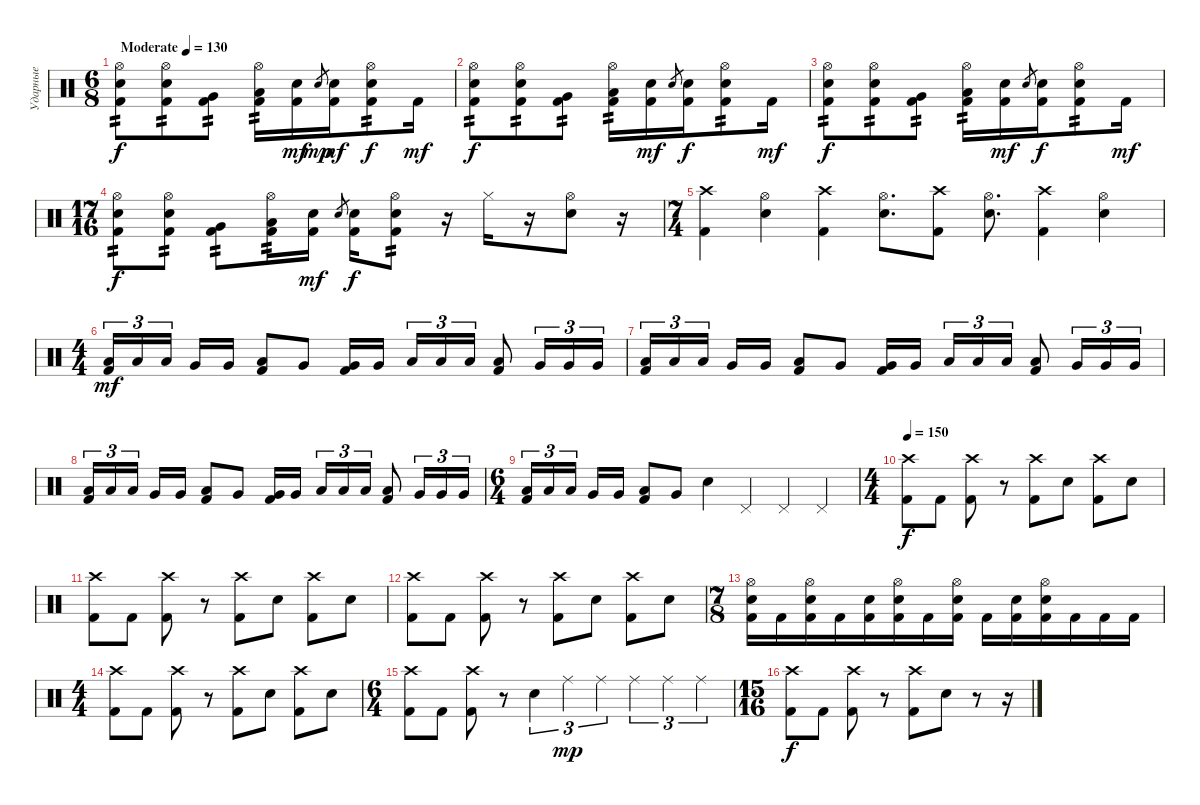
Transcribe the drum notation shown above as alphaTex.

\track ("Ударные" "Ударные") {instrument percussion}
\staff {score}
\articulation defaults
\ts (6 8)
\tempo (130 "Moderate")
\clef neutral
\ks c
("Hi-Hat (open)" "Electric Snare (hit)" "Kick (hit) 2").8{tp 2 dy f} ("Hi-Hat (open)" "Electric Snare (hit)" "Kick (hit) 2").8{tp 2} ("Very Low Tom (hit)" "Kick (hit) 2").8{tp 2} ("Hi-Hat (open)" "Low Floor Tom (hit)" "Kick (hit) 2").16{tp 2} ("Electric Snare (hit)" "Kick (hit) 2").16{dy mf} "Electric Snare (hit)".8{gr dy mp} ("Electric Snare (hit)" "Kick (hit) 2").16{dy mf} ("Hi-Hat (open)" "Electric Snare (hit)" "Kick (hit) 2").8{tp 2 dy f} "Kick (hit) 2".16{dy mf} |
("Hi-Hat (open)" "Electric Snare (hit)" "Kick (hit) 2").8{tp 2 dy f} ("Hi-Hat (open)" "Electric Snare (hit)" "Kick (hit) 2").8{tp 2} ("Very Low Tom (hit)" "Kick (hit) 2").8{tp 2} ("Hi-Hat (open)" "Low Floor Tom (hit)" "Kick (hit) 2").16{tp 2} ("Electric Snare (hit)" "Kick (hit) 2").16{dy mf} "Electric Snare (hit)".8{gr} ("Electric Snare (hit)" "Kick (hit) 2").16{dy f} ("Hi-Hat (open)" "Electric Snare (hit)" "Kick (hit) 2").8{tp 2} "Kick (hit) 2".16{dy mf} |
("Hi-Hat (open)" "Electric Snare (hit)" "Kick (hit) 2").8{tp 2 dy f} ("Hi-Hat (open)" "Electric Snare (hit)" "Kick (hit) 2").8{tp 2} ("Very Low Tom (hit)" "Kick (hit) 2").8{tp 2} ("Hi-Hat (open)" "Low Floor Tom (hit)" "Kick (hit) 2").16{tp 2} ("Electric Snare (hit)" "Kick (hit) 2").16{dy mf} "Electric Snare (hit)".8{gr} ("Electric Snare (hit)" "Kick (hit) 2").16{dy f} ("Hi-Hat (open)" "Electric Snare (hit)" "Kick (hit) 2").8{tp 2} "Kick (hit) 2".16{dy mf} |
\ts (17 16)
("Hi-Hat (open)" "Electric Snare (hit)" "Kick (hit) 2").8{tp 2 dy f} ("Hi-Hat (open)" "Electric Snare (hit)" "Kick (hit) 2").8{tp 2} ("Very Low Tom (hit)" "Kick (hit) 2").8{tp 2} ("Hi-Hat (open)" "Low Floor Tom (hit)" "Kick (hit) 2").16{tp 2} ("Electric Snare (hit)" "Kick (hit) 2").16{dy mf} "Electric Snare (hit)".8{gr} ("Electric Snare (hit)" "Kick (hit) 2").16{dy f} ("Hi-Hat (open)" "Electric Snare (hit)" "Kick (hit) 2").8{tp 2} r.16 "Hi-Hat (closed)".16 r.16 ("Hi-Hat (open)" "Electric Snare (hit)").8 r.16 |
\ts (7 4)
("Crash high (hit)" "Kick (hit) 2").4 ("Hi-Hat (open)" "Electric Snare (hit)").4 ("Crash high (hit)" "Kick (hit) 2").4 ("Hi-Hat (open)" "Electric Snare (hit)").8{d} ("Crash high (hit)" "Kick (hit) 2").8 ("Hi-Hat (open)" "Electric Snare (hit)").8{d} ("Crash high (hit)" "Kick (hit) 2").4 ("Hi-Hat (open)" "Electric Snare (hit)").4 |
\ts (4 4)
("Low Tom (hit)" "Kick (hit) 2").16{tu (3 2) dy mf} "Low Tom (hit)".16{tu (3 2)} "Low Tom (hit)".16{tu (3 2) beam splitsecondary} "Very Low Tom (hit)".16 "Very Low Tom (hit)".16 ("Low Tom (hit)" "Kick (hit) 2").8 "Very Low Tom (hit)".8 ("Very Low Tom (hit)" "Kick (hit) 2").16 "Very Low Tom (hit)".16{beam splitsecondary} "Low Floor Tom (hit)".16{tu (3 2)} "Low Floor Tom (hit)".16{tu (3 2)} "Low Floor Tom (hit)".16{tu (3 2)} ("Low Floor Tom (hit)" "Kick (hit) 2").8 "Very Low Tom (hit)".16{tu (3 2)} "Very Low Tom (hit)".16{tu (3 2)} "Very Low Tom (hit)".16{tu (3 2)} |
("Low Tom (hit)" "Kick (hit) 2").16{tu (3 2)} "Low Tom (hit)".16{tu (3 2)} "Low Tom (hit)".16{tu (3 2) beam splitsecondary} "Very Low Tom (hit)".16 "Very Low Tom (hit)".16 ("Low Tom (hit)" "Kick (hit) 2").8 "Very Low Tom (hit)".8 ("Very Low Tom (hit)" "Kick (hit) 2").16 "Very Low Tom (hit)".16{beam splitsecondary} "Low Floor Tom (hit)".16{tu (3 2)} "Low Floor Tom (hit)".16{tu (3 2)} "Low Floor Tom (hit)".16{tu (3 2)} ("Low Floor Tom (hit)" "Kick (hit) 2").8 "Very Low Tom (hit)".16{tu (3 2)} "Very Low Tom (hit)".16{tu (3 2)} "Very Low Tom (hit)".16{tu (3 2)} |
("Low Tom (hit)" "Kick (hit) 2").16{tu (3 2)} "Low Tom (hit)".16{tu (3 2)} "Low Tom (hit)".16{tu (3 2) beam splitsecondary} "Very Low Tom (hit)".16 "Very Low Tom (hit)".16 ("Low Tom (hit)" "Kick (hit) 2").8 "Very Low Tom (hit)".8 ("Very Low Tom (hit)" "Kick (hit) 2").16 "Very Low Tom (hit)".16{beam splitsecondary} "Low Floor Tom (hit)".16{tu (3 2)} "Low Floor Tom (hit)".16{tu (3 2)} "Low Floor Tom (hit)".16{tu (3 2)} ("Low Floor Tom (hit)" "Kick (hit) 2").8 "Very Low Tom (hit)".16{tu (3 2)} "Very Low Tom (hit)".16{tu (3 2)} "Very Low Tom (hit)".16{tu (3 2)} |
\ts (6 4)
("Low Tom (hit)" "Kick (hit) 2").16{tu (3 2)} "Low Tom (hit)".16{tu (3 2)} "Low Tom (hit)".16{tu (3 2) beam splitsecondary} "Very Low Tom (hit)".16 "Very Low Tom (hit)".16 ("Low Tom (hit)" "Kick (hit) 2").8 "Very Low Tom (hit)".8 "Electric Snare (hit)".4 "Pedal Hi-Hat (hit)".4 "Pedal Hi-Hat (hit)".4 "Pedal Hi-Hat (hit)".4 |
\ts (4 4)
\tempo 150
("Crash high (hit)" "Kick (hit) 2").8{dy f} "Kick (hit) 2".8 ("Crash high (hit)" "Kick (hit) 2").8 r.8 ("Crash high (hit)" "Kick (hit) 2").8 "Electric Snare (hit)".8 ("Crash high (hit)" "Kick (hit) 2").8 "Electric Snare (hit)".8 |
("Crash high (hit)" "Kick (hit) 2").8 "Kick (hit) 2".8 ("Crash high (hit)" "Kick (hit) 2").8 r.8 ("Crash high (hit)" "Kick (hit) 2").8 "Electric Snare (hit)".8 ("Crash high (hit)" "Kick (hit) 2").8 "Electric Snare (hit)".8 |
("Crash high (hit)" "Kick (hit) 2").8 "Kick (hit) 2".8 ("Crash high (hit)" "Kick (hit) 2").8 r.8 ("Crash high (hit)" "Kick (hit) 2").8 "Electric Snare (hit)".8 ("Crash high (hit)" "Kick (hit) 2").8 "Electric Snare (hit)".8 |
\ts (7 8)
("Hi-Hat (open)" "Electric Snare (hit)" "Kick (hit) 2").16 "Kick (hit) 2".16 ("Hi-Hat (open)" "Electric Snare (hit)" "Kick (hit) 2").16 "Kick (hit) 2".16 ("Electric Snare (hit)" "Kick (hit) 2").16 ("Hi-Hat (open)" "Electric Snare (hit)" "Kick (hit) 2").16 "Kick (hit) 2".16 ("Hi-Hat (open)" "Electric Snare (hit)" "Kick (hit) 2").16 "Kick (hit) 2".16 ("Electric Snare (hit)" "Kick (hit) 2").16 ("Hi-Hat (open)" "Electric Snare (hit)" "Kick (hit) 2").16 "Kick (hit) 2".16 "Kick (hit) 2".16 "Kick (hit) 2".16 |
\ts (4 4)
("Crash high (hit)" "Kick (hit) 2").8 "Kick (hit) 2".8 ("Crash high (hit)" "Kick (hit) 2").8 r.8 ("Crash high (hit)" "Kick (hit) 2").8 "Electric Snare (hit)".8 ("Crash high (hit)" "Kick (hit) 2").8 "Electric Snare (hit)".8 |
\ts (6 4)
("Crash high (hit)" "Kick (hit) 2").8 "Kick (hit) 2".8 ("Crash high (hit)" "Kick (hit) 2").8 r.8 "Electric Snare (hit)".4{tu (3 2)} "Ride (middle)".4{tu (3 2) dy mp} "Ride (middle)".4{tu (3 2)} "Ride (middle)".4{tu (3 2)} "Ride (middle)".4{tu (3 2)} "Ride (middle)".4{tu (3 2)} |
\ts (15 16)
("Crash high (hit)" "Kick (hit) 2").8{dy f} "Kick (hit) 2".8 ("Crash high (hit)" "Kick (hit) 2").8 r.8 ("Crash high (hit)" "Kick (hit) 2").8 "Electric Snare (hit)".8 r.8 r.16
